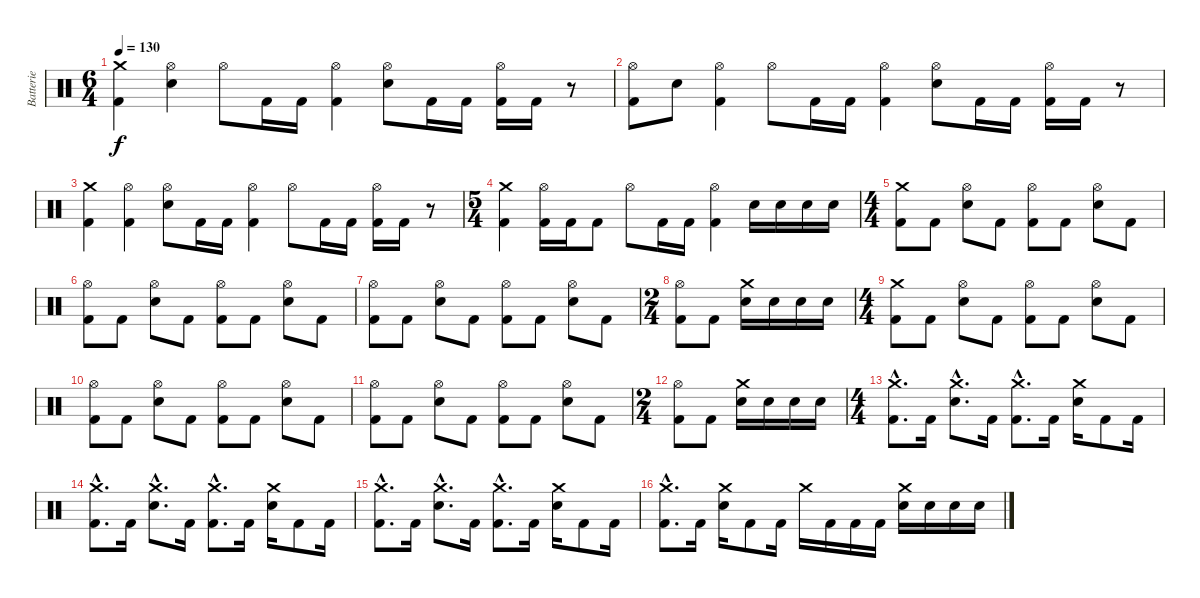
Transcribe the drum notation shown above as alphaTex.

\track ("Batterie" "Batterie") {instrument percussion}
\staff {score}
\articulation defaults
\ts (6 4)
\tempo 130
\clef neutral
\ks c
("Crash medium (hit)" "Kick (hit) 2").4{dy f} ("Hi-Hat (open)" "Snare (hit) 2").4 "Hi-Hat (open)".8 "Kick (hit) 2".16 "Kick (hit) 2".16 ("Hi-Hat (open)" "Kick (hit) 2").4 ("Hi-Hat (open)" "Snare (hit) 2").8 "Kick (hit) 2".16 "Kick (hit) 2".16 ("Hi-Hat (open)" "Kick (hit) 2").16 "Kick (hit) 2".16 r.8 |
("Hi-Hat (open)" "Kick (hit) 2").8 "Snare (hit) 2".8 ("Hi-Hat (open)" "Kick (hit) 2").4 "Hi-Hat (open)".8 "Kick (hit) 2".16 "Kick (hit) 2".16 ("Hi-Hat (open)" "Kick (hit) 2").4 ("Hi-Hat (open)" "Snare (hit) 2").8 "Kick (hit) 2".16 "Kick (hit) 2".16 ("Hi-Hat (open)" "Kick (hit) 2").16 "Kick (hit) 2".16 r.8 |
("Crash medium (hit)" "Kick (hit) 2").4 ("Hi-Hat (open)" "Kick (hit) 2").4 ("Hi-Hat (open)" "Snare (hit) 2").8 "Kick (hit) 2".16 "Kick (hit) 2".16 ("Hi-Hat (open)" "Kick (hit) 2").4 "Hi-Hat (open)".8 "Kick (hit) 2".16 "Kick (hit) 2".16 ("Hi-Hat (open)" "Kick (hit) 2").16 "Kick (hit) 2".16 r.8 |
\ts (5 4)
("Crash medium (hit)" "Kick (hit) 2").4 ("Hi-Hat (open)" "Kick (hit) 2").16 "Kick (hit) 2".16 "Kick (hit) 2".8 "Hi-Hat (open)".8 "Kick (hit) 2".16 "Kick (hit) 2".16 ("Hi-Hat (open)" "Kick (hit) 2").4 "Snare (hit) 2".16 "Snare (hit) 2".16 "Snare (hit) 2".16 "Snare (hit) 2".16 |
\ts (4 4)
("Crash medium (hit)" "Kick (hit) 2").8 "Kick (hit) 2".8 ("Hi-Hat (open)" "Snare (hit) 2").8 "Kick (hit) 2".8 ("Hi-Hat (open)" "Kick (hit) 2").8 "Kick (hit) 2".8 ("Hi-Hat (open)" "Snare (hit) 2").8 "Kick (hit) 2".8 |
("Hi-Hat (open)" "Kick (hit) 2").8 "Kick (hit) 2".8 ("Hi-Hat (open)" "Snare (hit) 2").8 "Kick (hit) 2".8 ("Hi-Hat (open)" "Kick (hit) 2").8 "Kick (hit) 2".8 ("Hi-Hat (open)" "Snare (hit) 2").8 "Kick (hit) 2".8 |
("Hi-Hat (open)" "Kick (hit) 2").8 "Kick (hit) 2".8 ("Hi-Hat (open)" "Snare (hit) 2").8 "Kick (hit) 2".8 ("Hi-Hat (open)" "Kick (hit) 2").8 "Kick (hit) 2".8 ("Hi-Hat (open)" "Snare (hit) 2").8 "Kick (hit) 2".8 |
\ts (2 4)
("Hi-Hat (open)" "Kick (hit) 2").8 "Kick (hit) 2".8 ("Crash medium (hit)" "Snare (hit) 2").16 "Snare (hit) 2".16 "Snare (hit) 2".16 "Snare (hit) 2".16 |
\ts (4 4)
("Crash medium (hit)" "Kick (hit) 2").8 "Kick (hit) 2".8 ("Hi-Hat (open)" "Snare (hit) 2").8 "Kick (hit) 2".8 ("Hi-Hat (open)" "Kick (hit) 2").8 "Kick (hit) 2".8 ("Hi-Hat (open)" "Snare (hit) 2").8 "Kick (hit) 2".8 |
("Hi-Hat (open)" "Kick (hit) 2").8 "Kick (hit) 2".8 ("Hi-Hat (open)" "Snare (hit) 2").8 "Kick (hit) 2".8 ("Hi-Hat (open)" "Kick (hit) 2").8 "Kick (hit) 2".8 ("Hi-Hat (open)" "Snare (hit) 2").8 "Kick (hit) 2".8 |
("Hi-Hat (open)" "Kick (hit) 2").8 "Kick (hit) 2".8 ("Hi-Hat (open)" "Snare (hit) 2").8 "Kick (hit) 2".8 ("Hi-Hat (open)" "Kick (hit) 2").8 "Kick (hit) 2".8 ("Hi-Hat (open)" "Snare (hit) 2").8 "Kick (hit) 2".8 |
\ts (2 4)
("Hi-Hat (open)" "Kick (hit) 2").8 "Kick (hit) 2".8 ("Crash medium (hit)" "Snare (hit) 2").16 "Snare (hit) 2".16 "Snare (hit) 2".16 "Snare (hit) 2".16 |
\ts (4 4)
("Crash medium (hit)"{hac} "Kick (hit) 2"{hac}).8{d} "Kick (hit) 2".16 ("Crash medium (hit)"{hac} "Snare (hit) 2"{hac}).8{d} "Kick (hit) 2".16 ("Crash medium (hit)"{hac} "Kick (hit) 2"{hac}).8{d} "Kick (hit) 2".16 ("Crash medium (hit)" "Snare (hit) 2").16 "Kick (hit) 2".8 "Kick (hit) 2".16 |
("Crash medium (hit)"{hac} "Kick (hit) 2"{hac}).8{d} "Kick (hit) 2".16 ("Crash medium (hit)"{hac} "Snare (hit) 2"{hac}).8{d} "Kick (hit) 2".16 ("Crash medium (hit)"{hac} "Kick (hit) 2"{hac}).8{d} "Kick (hit) 2".16 ("Crash medium (hit)" "Snare (hit) 2").16 "Kick (hit) 2".8 "Kick (hit) 2".16 |
("Crash medium (hit)"{hac} "Kick (hit) 2"{hac}).8{d} "Kick (hit) 2".16 ("Crash medium (hit)"{hac} "Snare (hit) 2"{hac}).8{d} "Kick (hit) 2".16 ("Crash medium (hit)"{hac} "Kick (hit) 2"{hac}).8{d} "Kick (hit) 2".16 ("Crash medium (hit)" "Snare (hit) 2").16 "Kick (hit) 2".8 "Kick (hit) 2".16 |
("Crash medium (hit)"{hac} "Kick (hit) 2"{hac}).8{d} "Kick (hit) 2".16 ("Crash medium (hit)" "Snare (hit) 2").16 "Kick (hit) 2".8 "Kick (hit) 2".16 "Crash medium (hit)".16 "Kick (hit) 2".16 "Kick (hit) 2".16 "Kick (hit) 2".16 ("Crash medium (hit)" "Snare (hit) 2").16 "Snare (hit) 2".16 "Snare (hit) 2".16 "Snare (hit) 2".16
